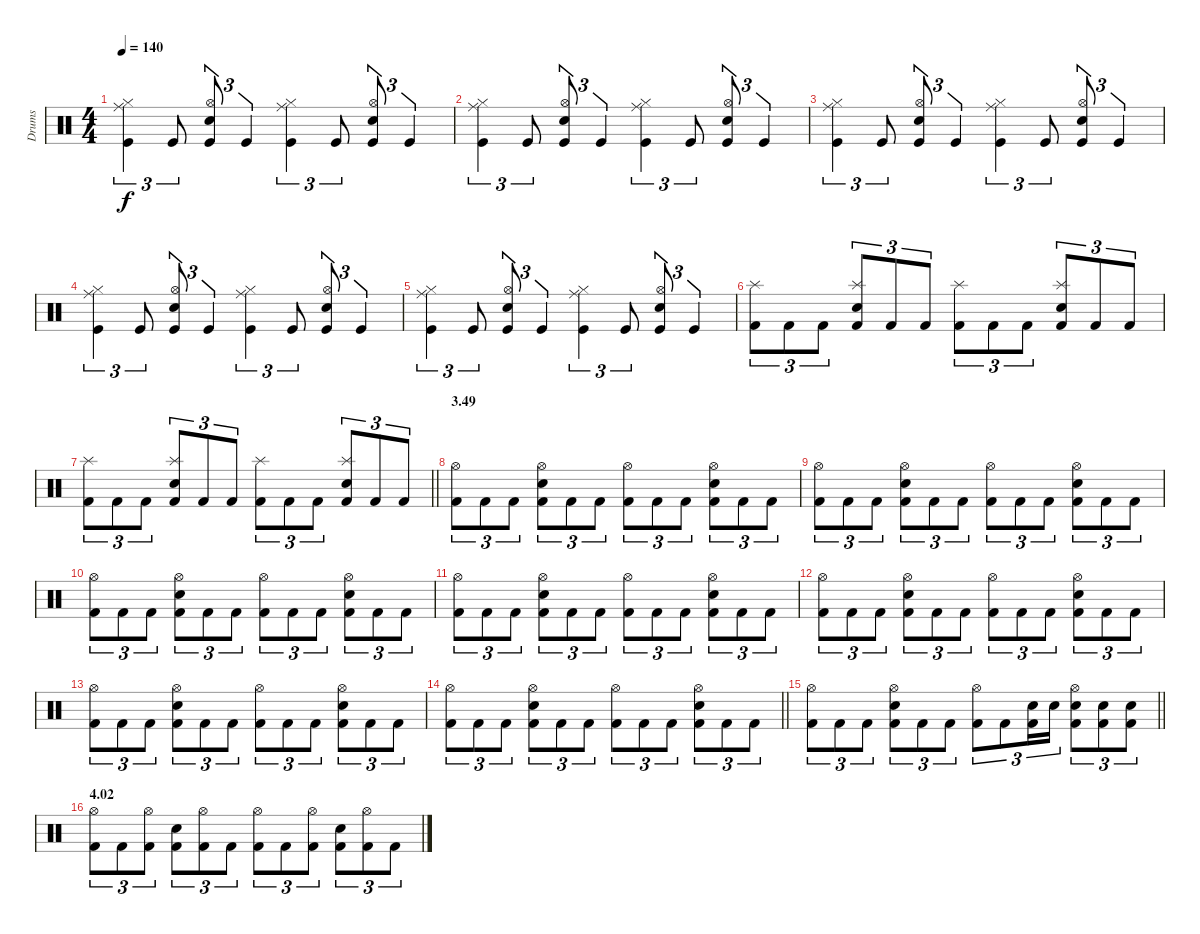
\track ("Drums" "Drums") {instrument percussion}
\staff {score}
\articulation defaults
\ts (4 4)
\tempo 140
\clef neutral
\ks c
("Hi-Hat (closed)" "Ride (middle)" "Kick (hit)").4{tu (3 2) dy f} "Kick (hit)".8{tu (3 2)} ("Hi-Hat (open)" "Electric Snare (hit)" "Kick (hit)").8{tu (3 2)} "Kick (hit)".4{tu (3 2)} ("Hi-Hat (closed)" "Ride (middle)" "Kick (hit)").4{tu (3 2)} "Kick (hit)".8{tu (3 2)} ("Hi-Hat (open)" "Electric Snare (hit)" "Kick (hit)").8{tu (3 2)} "Kick (hit)".4{tu (3 2)} |
("Hi-Hat (closed)" "Ride (middle)" "Kick (hit)").4{tu (3 2)} "Kick (hit)".8{tu (3 2)} ("Hi-Hat (open)" "Electric Snare (hit)" "Kick (hit)").8{tu (3 2)} "Kick (hit)".4{tu (3 2)} ("Hi-Hat (closed)" "Ride (middle)" "Kick (hit)").4{tu (3 2)} "Kick (hit)".8{tu (3 2)} ("Hi-Hat (open)" "Electric Snare (hit)" "Kick (hit)").8{tu (3 2)} "Kick (hit)".4{tu (3 2)} |
("Hi-Hat (closed)" "Ride (middle)" "Kick (hit)").4{tu (3 2)} "Kick (hit)".8{tu (3 2)} ("Hi-Hat (open)" "Electric Snare (hit)" "Kick (hit)").8{tu (3 2)} "Kick (hit)".4{tu (3 2)} ("Hi-Hat (closed)" "Ride (middle)" "Kick (hit)").4{tu (3 2)} "Kick (hit)".8{tu (3 2)} ("Hi-Hat (open)" "Electric Snare (hit)" "Kick (hit)").8{tu (3 2)} "Kick (hit)".4{tu (3 2)} |
("Hi-Hat (closed)" "Ride (middle)" "Kick (hit)").4{tu (3 2)} "Kick (hit)".8{tu (3 2)} ("Hi-Hat (open)" "Electric Snare (hit)" "Kick (hit)").8{tu (3 2)} "Kick (hit)".4{tu (3 2)} ("Hi-Hat (closed)" "Ride (middle)" "Kick (hit)").4{tu (3 2)} "Kick (hit)".8{tu (3 2)} ("Hi-Hat (open)" "Electric Snare (hit)" "Kick (hit)").8{tu (3 2)} "Kick (hit)".4{tu (3 2)} |
("Hi-Hat (closed)" "Ride (middle)" "Kick (hit)").4{tu (3 2)} "Kick (hit)".8{tu (3 2)} ("Hi-Hat (open)" "Electric Snare (hit)" "Kick (hit)").8{tu (3 2)} "Kick (hit)".4{tu (3 2)} ("Hi-Hat (closed)" "Ride (middle)" "Kick (hit)").4{tu (3 2)} "Kick (hit)".8{tu (3 2)} ("Hi-Hat (open)" "Electric Snare (hit)" "Kick (hit)").8{tu (3 2)} "Kick (hit)".4{tu (3 2)} |
("Splash (hit)" "Kick (hit) 2").8{tu (3 2)} "Kick (hit) 2".8{tu (3 2)} "Kick (hit) 2".8{tu (3 2)} ("Splash (hit)" "Electric Snare (hit)" "Kick (hit) 2").8{tu (3 2)} "Kick (hit) 2".8{tu (3 2)} "Kick (hit) 2".8{tu (3 2)} ("Splash (hit)" "Kick (hit) 2").8{tu (3 2)} "Kick (hit) 2".8{tu (3 2)} "Kick (hit) 2".8{tu (3 2)} ("Splash (hit)" "Electric Snare (hit)" "Kick (hit) 2").8{tu (3 2)} "Kick (hit) 2".8{tu (3 2)} "Kick (hit) 2".8{tu (3 2)} |
\barLineRight lightlight
("Splash (hit)" "Kick (hit) 2").8{tu (3 2)} "Kick (hit) 2".8{tu (3 2)} "Kick (hit) 2".8{tu (3 2)} ("Splash (hit)" "Electric Snare (hit)" "Kick (hit) 2").8{tu (3 2)} "Kick (hit) 2".8{tu (3 2)} "Kick (hit) 2".8{tu (3 2)} ("Splash (hit)" "Kick (hit) 2").8{tu (3 2)} "Kick (hit) 2".8{tu (3 2)} "Kick (hit) 2".8{tu (3 2)} ("Splash (hit)" "Electric Snare (hit)" "Kick (hit) 2").8{tu (3 2)} "Kick (hit) 2".8{tu (3 2)} "Kick (hit) 2".8{tu (3 2)} |
\section ("" "3.49")
("Hi-Hat (open)" "Kick (hit) 2").8{tu (3 2)} "Kick (hit) 2".8{tu (3 2)} "Kick (hit) 2".8{tu (3 2)} ("Hi-Hat (open)" "Electric Snare (hit)" "Kick (hit) 2").8{tu (3 2)} "Kick (hit) 2".8{tu (3 2)} "Kick (hit) 2".8{tu (3 2)} ("Hi-Hat (open)" "Kick (hit) 2").8{tu (3 2)} "Kick (hit) 2".8{tu (3 2)} "Kick (hit) 2".8{tu (3 2)} ("Hi-Hat (open)" "Electric Snare (hit)" "Kick (hit) 2").8{tu (3 2)} "Kick (hit) 2".8{tu (3 2)} "Kick (hit) 2".8{tu (3 2)} |
("Hi-Hat (open)" "Kick (hit) 2").8{tu (3 2)} "Kick (hit) 2".8{tu (3 2)} "Kick (hit) 2".8{tu (3 2)} ("Hi-Hat (open)" "Electric Snare (hit)" "Kick (hit) 2").8{tu (3 2)} "Kick (hit) 2".8{tu (3 2)} "Kick (hit) 2".8{tu (3 2)} ("Hi-Hat (open)" "Kick (hit) 2").8{tu (3 2)} "Kick (hit) 2".8{tu (3 2)} "Kick (hit) 2".8{tu (3 2)} ("Hi-Hat (open)" "Electric Snare (hit)" "Kick (hit) 2").8{tu (3 2)} "Kick (hit) 2".8{tu (3 2)} "Kick (hit) 2".8{tu (3 2)} |
("Hi-Hat (open)" "Kick (hit) 2").8{tu (3 2)} "Kick (hit) 2".8{tu (3 2)} "Kick (hit) 2".8{tu (3 2)} ("Hi-Hat (open)" "Electric Snare (hit)" "Kick (hit) 2").8{tu (3 2)} "Kick (hit) 2".8{tu (3 2)} "Kick (hit) 2".8{tu (3 2)} ("Hi-Hat (open)" "Kick (hit) 2").8{tu (3 2)} "Kick (hit) 2".8{tu (3 2)} "Kick (hit) 2".8{tu (3 2)} ("Hi-Hat (open)" "Electric Snare (hit)" "Kick (hit) 2").8{tu (3 2)} "Kick (hit) 2".8{tu (3 2)} "Kick (hit) 2".8{tu (3 2)} |
("Hi-Hat (open)" "Kick (hit) 2").8{tu (3 2)} "Kick (hit) 2".8{tu (3 2)} "Kick (hit) 2".8{tu (3 2)} ("Hi-Hat (open)" "Electric Snare (hit)" "Kick (hit) 2").8{tu (3 2)} "Kick (hit) 2".8{tu (3 2)} "Kick (hit) 2".8{tu (3 2)} ("Hi-Hat (open)" "Kick (hit) 2").8{tu (3 2)} "Kick (hit) 2".8{tu (3 2)} "Kick (hit) 2".8{tu (3 2)} ("Hi-Hat (open)" "Electric Snare (hit)" "Kick (hit) 2").8{tu (3 2)} "Kick (hit) 2".8{tu (3 2)} "Kick (hit) 2".8{tu (3 2)} |
("Hi-Hat (open)" "Kick (hit) 2").8{tu (3 2)} "Kick (hit) 2".8{tu (3 2)} "Kick (hit) 2".8{tu (3 2)} ("Hi-Hat (open)" "Electric Snare (hit)" "Kick (hit) 2").8{tu (3 2)} "Kick (hit) 2".8{tu (3 2)} "Kick (hit) 2".8{tu (3 2)} ("Hi-Hat (open)" "Kick (hit) 2").8{tu (3 2)} "Kick (hit) 2".8{tu (3 2)} "Kick (hit) 2".8{tu (3 2)} ("Hi-Hat (open)" "Electric Snare (hit)" "Kick (hit) 2").8{tu (3 2)} "Kick (hit) 2".8{tu (3 2)} "Kick (hit) 2".8{tu (3 2)} |
("Hi-Hat (open)" "Kick (hit) 2").8{tu (3 2)} "Kick (hit) 2".8{tu (3 2)} "Kick (hit) 2".8{tu (3 2)} ("Hi-Hat (open)" "Electric Snare (hit)" "Kick (hit) 2").8{tu (3 2)} "Kick (hit) 2".8{tu (3 2)} "Kick (hit) 2".8{tu (3 2)} ("Hi-Hat (open)" "Kick (hit) 2").8{tu (3 2)} "Kick (hit) 2".8{tu (3 2)} "Kick (hit) 2".8{tu (3 2)} ("Hi-Hat (open)" "Electric Snare (hit)" "Kick (hit) 2").8{tu (3 2)} "Kick (hit) 2".8{tu (3 2)} "Kick (hit) 2".8{tu (3 2)} |
\barLineRight lightlight
("Hi-Hat (open)" "Kick (hit) 2").8{tu (3 2)} "Kick (hit) 2".8{tu (3 2)} "Kick (hit) 2".8{tu (3 2)} ("Hi-Hat (open)" "Electric Snare (hit)" "Kick (hit) 2").8{tu (3 2)} "Kick (hit) 2".8{tu (3 2)} "Kick (hit) 2".8{tu (3 2)} ("Hi-Hat (open)" "Kick (hit) 2").8{tu (3 2)} "Kick (hit) 2".8{tu (3 2)} "Kick (hit) 2".8{tu (3 2)} ("Hi-Hat (open)" "Electric Snare (hit)" "Kick (hit) 2").8{tu (3 2)} "Kick (hit) 2".8{tu (3 2)} "Kick (hit) 2".8{tu (3 2)} |
\barLineRight lightlight
("Hi-Hat (open)" "Kick (hit) 2").8{tu (3 2)} "Kick (hit) 2".8{tu (3 2)} "Kick (hit) 2".8{tu (3 2)} ("Hi-Hat (open)" "Electric Snare (hit)" "Kick (hit) 2").8{tu (3 2)} "Kick (hit) 2".8{tu (3 2)} "Kick (hit) 2".8{tu (3 2)} ("Hi-Hat (open)" "Kick (hit) 2").8{tu (3 2)} "Kick (hit) 2".8{tu (3 2)} ("Electric Snare (hit)" "Kick (hit) 2").16{tu (3 2)} "Electric Snare (hit)".16{tu (3 2)} ("Hi-Hat (open)" "Electric Snare (hit)" "Kick (hit) 2").8{tu (3 2)} ("Electric Snare (hit)" "Kick (hit) 2").8{tu (3 2)} ("Electric Snare (hit)" "Kick (hit) 2").8{tu (3 2)} |
\section ("" "4.02")
("Hi-Hat (open)" "Kick (hit) 2").8{tu (3 2)} "Kick (hit) 2".8{tu (3 2)} ("Hi-Hat (open)" "Kick (hit) 2").8{tu (3 2)} ("Electric Snare (hit)" "Kick (hit) 2").8{tu (3 2)} ("Hi-Hat (open)" "Kick (hit) 2").8{tu (3 2)} "Kick (hit) 2".8{tu (3 2)} ("Hi-Hat (open)" "Kick (hit) 2").8{tu (3 2)} "Kick (hit) 2".8{tu (3 2)} ("Hi-Hat (open)" "Kick (hit) 2").8{tu (3 2)} ("Electric Snare (hit)" "Kick (hit) 2").8{tu (3 2)} ("Hi-Hat (open)" "Kick (hit) 2").8{tu (3 2)} "Kick (hit) 2".8{tu (3 2)}
